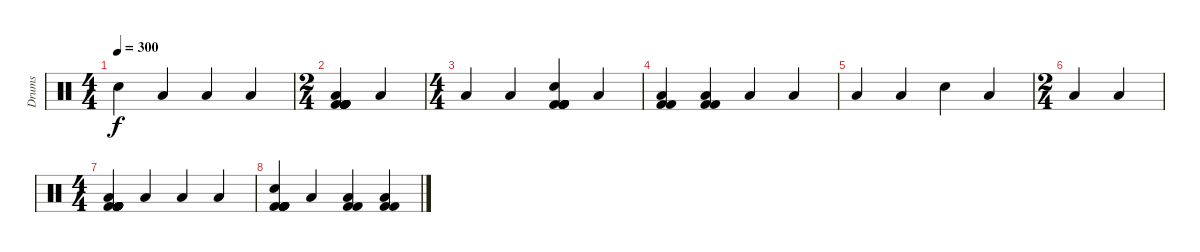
\track ("Drums" "Drums") {instrument percussion}
\staff {score}
\articulation defaults
\ts (4 4)
\tempo 300
\clef neutral
\ks c "Electric Snare (hit)".4{dy f} "Low Floor Tom (hit)".4 "Low Floor Tom (hit)".4 "Low Floor Tom (hit)".4
|
\ts (2 4)
("Low Floor Tom (hit)" "Kick (hit) 2" "Kick (hit) 2" "Kick (hit) 2" "Kick (hit) 2" "Kick (hit) 2").4 "Low Floor Tom (hit)".4 |
\ts (4 4)
"Low Floor Tom (hit)".4 "Low Floor Tom (hit)".4 ("Electric Snare (hit)" "Kick (hit) 2" "Kick (hit) 2" "Kick (hit) 2" "Kick (hit) 2" "Kick (hit) 2").4 "Low Floor Tom (hit)".4 |
("Low Floor Tom (hit)" "Kick (hit) 2" "Kick (hit) 2").4 ("Low Floor Tom (hit)" "Kick (hit) 2" "Kick (hit) 2").4 "Low Floor Tom (hit)".4 "Low Floor Tom (hit)".4 |
"Low Floor Tom (hit)".4 "Low Floor Tom (hit)".4 "Electric Snare (hit)".4 "Low Floor Tom (hit)".4 |
\ts (2 4)
"Low Floor Tom (hit)".4 "Low Floor Tom (hit)".4 |
\ts (4 4)
("Low Floor Tom (hit)" "Kick (hit) 2" "Kick (hit) 2" "Kick (hit) 2" "Kick (hit) 2" "Kick (hit) 2").4 "Low Floor Tom (hit)".4 "Low Floor Tom (hit)".4 "Low Floor Tom (hit)".4 |
("Electric Snare (hit)" "Kick (hit) 2" "Kick (hit) 2" "Kick (hit) 2" "Kick (hit) 2" "Kick (hit) 2").4 "Low Floor Tom (hit)".4 ("Low Floor Tom (hit)" "Kick (hit) 2" "Kick (hit) 2").4 ("Low Floor Tom (hit)" "Kick (hit) 2" "Kick (hit) 2").4
